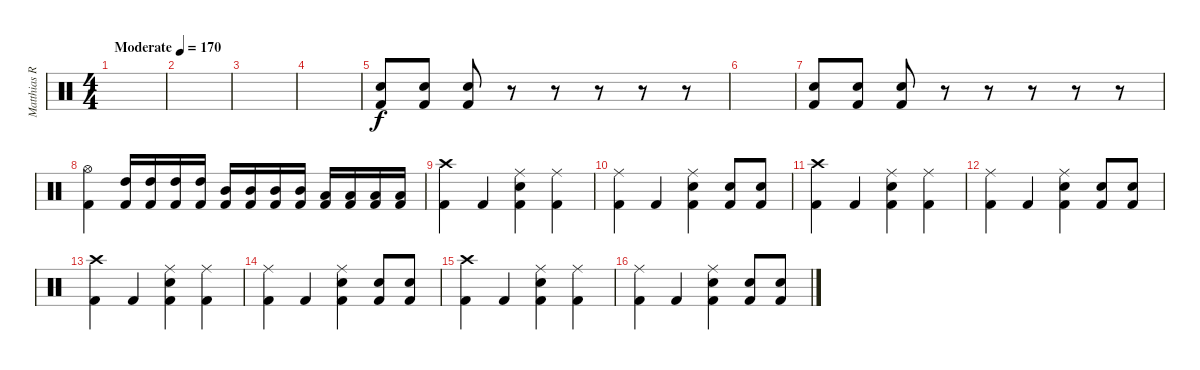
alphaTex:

\track ("Matthias R." "Matthias R") {instrument percussion}
\staff {score}
\articulation defaults
\ts (4 4)
\tempo (170 "Moderate")
\clef neutral
\ks c
|
|
|
|
("Kick (hit) 2" "Snare (hit) 2").8 ("Kick (hit) 2" "Snare (hit) 2").8 ("Kick (hit) 2" "Snare (hit) 2").8 r.8 r.8 r.8 r.8 r.8 |
|
("Kick (hit) 2" "Snare (hit) 2").8 ("Kick (hit) 2" "Snare (hit) 2").8 ("Kick (hit) 2" "Snare (hit) 2").8 r.8 r.8 r.8 r.8 r.8 |
("Kick (hit) 2" "Hi-Hat (open)").4 ("High Tom (hit)" "Kick (hit) 2").16 ("High Tom (hit)" "Kick (hit) 2").16 ("High Tom (hit)" "Kick (hit) 2").16 ("High Tom (hit)" "Kick (hit) 2").16 ("Mid Tom (hit)" "Kick (hit) 2").16 ("Mid Tom (hit)" "Kick (hit) 2").16 ("Mid Tom (hit)" "Kick (hit) 2").16 ("Mid Tom (hit)" "Kick (hit) 2").16 ("Low Tom (hit)" "Kick (hit) 2").16 ("Low Tom (hit)" "Kick (hit) 2").16 ("Low Tom (hit)" "Kick (hit) 2").16 ("Low Tom (hit)" "Kick (hit) 2").16 |
("Kick (hit) 2" "Crash high (hit)").4 "Kick (hit) 2".4 ("Kick (hit) 2" "Snare (hit) 2" "Ride (middle)").4 ("Kick (hit) 2" "Ride (middle)").4 |
("Kick (hit) 2" "Ride (middle)").4 "Kick (hit) 2".4 ("Kick (hit) 2" "Snare (hit) 2" "Ride (middle)").4 ("Kick (hit) 2" "Snare (hit) 2").8 ("Kick (hit) 2" "Snare (hit) 2").8 |
("Kick (hit) 2" "Crash high (hit)").4 "Kick (hit) 2".4 ("Kick (hit) 2" "Snare (hit) 2" "Ride (middle)").4 ("Kick (hit) 2" "Ride (middle)").4 |
("Kick (hit) 2" "Ride (middle)").4 "Kick (hit) 2".4 ("Kick (hit) 2" "Snare (hit) 2" "Ride (middle)").4 ("Kick (hit) 2" "Snare (hit) 2").8 ("Kick (hit) 2" "Snare (hit) 2").8 |
("Kick (hit) 2" "Crash high (hit)").4 "Kick (hit) 2".4 ("Kick (hit) 2" "Snare (hit) 2" "Ride (middle)").4 ("Kick (hit) 2" "Ride (middle)").4 |
("Kick (hit) 2" "Ride (middle)").4 "Kick (hit) 2".4 ("Kick (hit) 2" "Snare (hit) 2" "Ride (middle)").4 ("Kick (hit) 2" "Snare (hit) 2").8 ("Kick (hit) 2" "Snare (hit) 2").8 |
("Kick (hit) 2" "Crash high (hit)").4 "Kick (hit) 2".4 ("Kick (hit) 2" "Snare (hit) 2" "Ride (middle)").4 ("Kick (hit) 2" "Ride (middle)").4 |
("Kick (hit) 2" "Ride (middle)").4 "Kick (hit) 2".4 ("Kick (hit) 2" "Snare (hit) 2" "Ride (middle)").4 ("Kick (hit) 2" "Snare (hit) 2").8 ("Kick (hit) 2" "Snare (hit) 2").8
